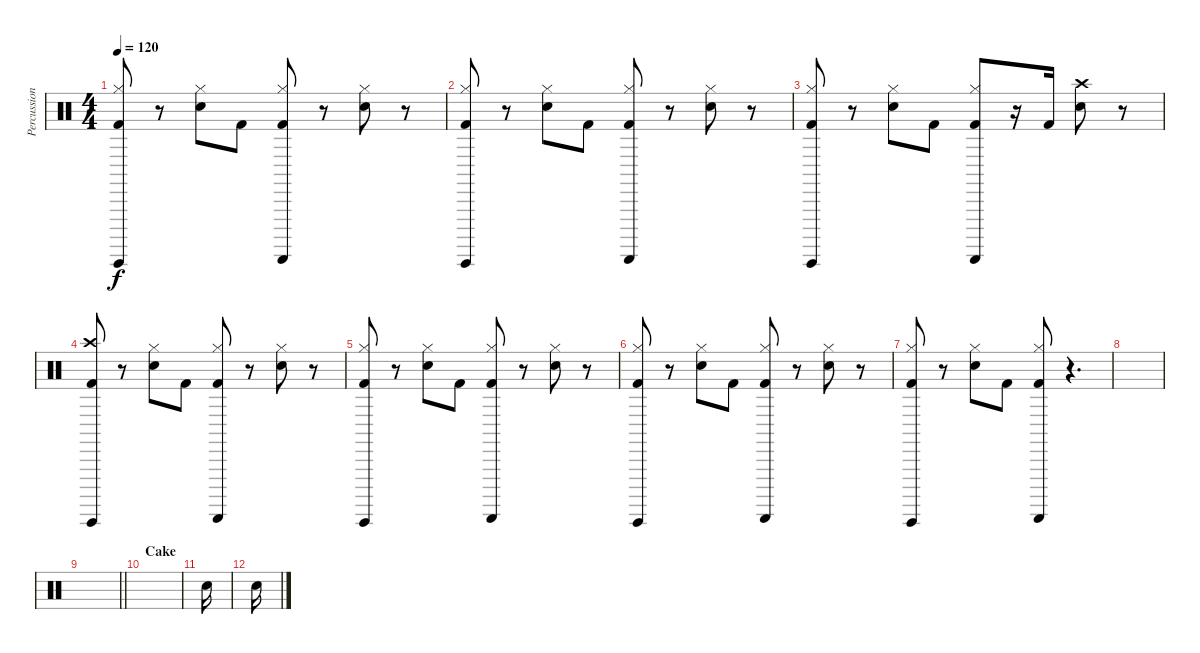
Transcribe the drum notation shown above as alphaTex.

\track ("Percussion" "Percussion") {instrument percussion}
\staff {score}
\articulation defaults
\ts (4 4)
\tempo 120
\clef neutral
\ks c
("Guiro (hit)" "Hi-Hat (closed)" "Kick (hit) 2").8{dy f} r.8 ("Hi-Hat (closed)" "Electric Snare (hit)").8 "Kick (hit) 2".8 ("Guiro (scrap-return)" "Hi-Hat (closed)" "Kick (hit) 2").8 r.8 ("Hi-Hat (closed)" "Electric Snare (hit)").8 r.8 |
("Guiro (hit)" "Hi-Hat (closed)" "Kick (hit) 2").8 r.8 ("Hi-Hat (closed)" "Electric Snare (hit)").8 "Kick (hit) 2".8 ("Guiro (scrap-return)" "Hi-Hat (closed)" "Kick (hit) 2").8 r.8 ("Hi-Hat (closed)" "Electric Snare (hit)").8 r.8 |
("Guiro (hit)" "Hi-Hat (closed)" "Kick (hit) 2").8 r.8 ("Hi-Hat (closed)" "Electric Snare (hit)").8 "Kick (hit) 2".8 ("Guiro (scrap-return)" "Hi-Hat (closed)" "Kick (hit) 2").8 r.16 "Kick (hit) 2".16 ("Crash high (hit)" "Electric Snare (hit)").8 r.8 |
("Guiro (hit)" "Crash high (hit)" "Kick (hit) 2").8 r.8 ("Hi-Hat (closed)" "Electric Snare (hit)").8 "Kick (hit) 2".8 ("Guiro (scrap-return)" "Hi-Hat (closed)" "Kick (hit) 2").8 r.8 ("Hi-Hat (closed)" "Electric Snare (hit)").8 r.8 |
("Guiro (hit)" "Hi-Hat (closed)" "Kick (hit) 2").8 r.8 ("Hi-Hat (closed)" "Electric Snare (hit)").8 "Kick (hit) 2".8 ("Guiro (scrap-return)" "Hi-Hat (closed)" "Kick (hit) 2").8 r.8 ("Hi-Hat (closed)" "Electric Snare (hit)").8 r.8 |
("Guiro (hit)" "Hi-Hat (closed)" "Kick (hit) 2").8 r.8 ("Hi-Hat (closed)" "Electric Snare (hit)").8 "Kick (hit) 2".8 ("Guiro (scrap-return)" "Hi-Hat (closed)" "Kick (hit) 2").8 r.8 ("Hi-Hat (closed)" "Electric Snare (hit)").8 r.8 |
("Guiro (hit)" "Hi-Hat (closed)" "Kick (hit) 2").8 r.8 ("Hi-Hat (closed)" "Electric Snare (hit)").8 "Kick (hit) 2".8 ("Guiro (scrap-return)" "Hi-Hat (closed)" "Kick (hit) 2").8 r.4{d} |
|
\barLineRight lightlight
|
\section ("" "Cake")
|
"Snare (hit)".16 |
"Snare (hit)".16
